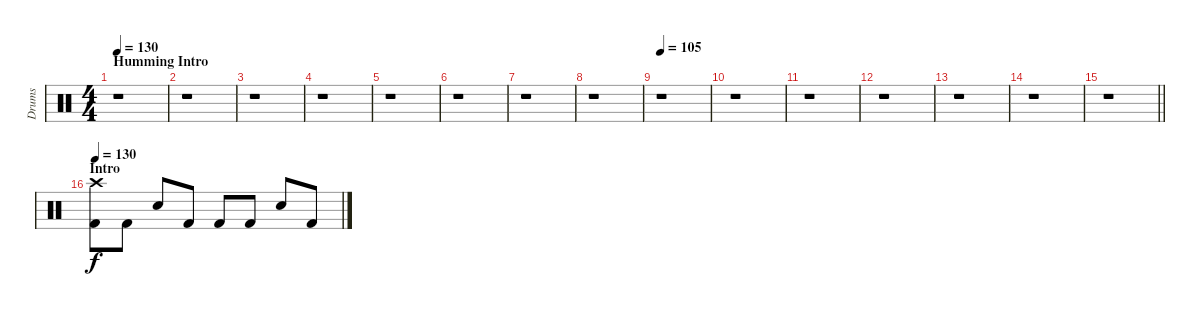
\track ("Drums" "Drums") {instrument percussion}
\staff {score}
\articulation defaults
\ts (4 4)
\section ("" "Humming Intro")
\tempo 130
\tempo 105
\tempo 130
\clef neutral
\ks c
r.1{dy f} |
r.1 |
r.1 |
r.1 |
r.1 |
r.1 |
r.1 |
r.1 |
\tempo 105
r.1 |
r.1 |
r.1 |
r.1 |
r.1 |
r.1 |
\barLineRight lightlight
r.1 |
\section ("" "Intro")
\tempo 130
("Crash high (hit)" "Kick (hit) 2").8 "Kick (hit) 2".8 "Electric Snare (hit)".8 "Kick (hit) 2".8 "Kick (hit) 2".8 "Kick (hit) 2".8 "Electric Snare (hit)".8 "Kick (hit) 2".8
